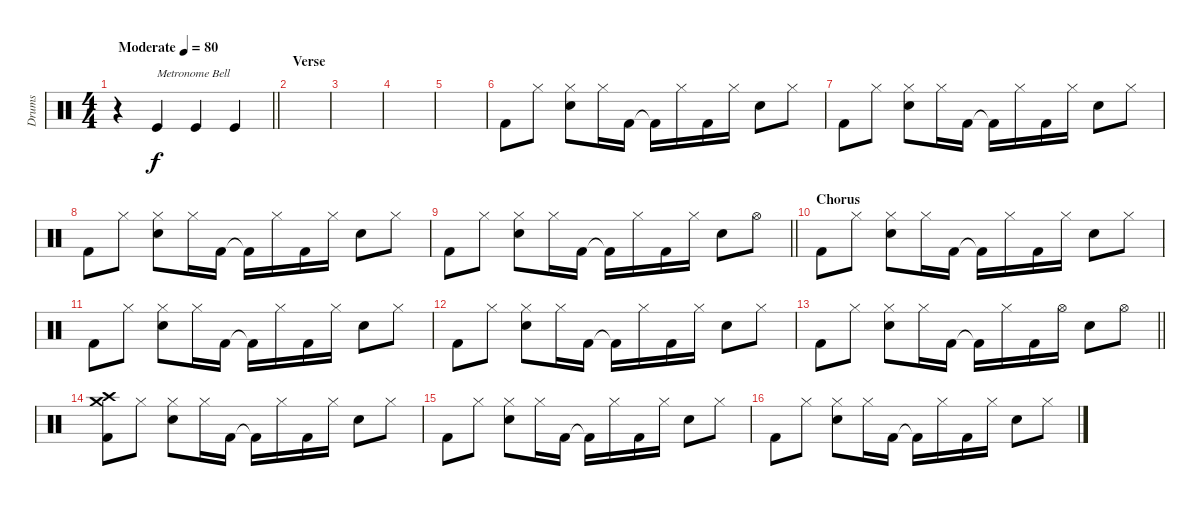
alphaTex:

\track ("Drums" "Drums") {instrument percussion}
\staff {score}
\articulation defaults
\ts (4 4)
\tempo (80 "Moderate")
\clef neutral
\barLineRight lightlight
\ks c
r.4{dy f} "Kick (hit)".4{txt "Metronome Bell"} "Kick (hit)".4 "Kick (hit)".4 |
\section ("" "Verse")
|
|
|
|
"Kick (hit) 2".8 "Hi-Hat (closed)".8 ("Hi-Hat (closed)" "Snare (hit) 2").8 "Hi-Hat (closed)".16 "Kick (hit) 2".16 "Kick (hit) 2"{t}.16 "Hi-Hat (closed)".16 "Kick (hit) 2".16 "Hi-Hat (closed)".16 "Snare (hit) 2".8 "Hi-Hat (closed)".8 |
"Kick (hit) 2".8 "Hi-Hat (closed)".8 ("Hi-Hat (closed)" "Snare (hit) 2").8 "Hi-Hat (closed)".16 "Kick (hit) 2".16 "Kick (hit) 2"{t}.16 "Hi-Hat (closed)".16 "Kick (hit) 2".16 "Hi-Hat (closed)".16 "Snare (hit) 2".8 "Hi-Hat (closed)".8 |
"Kick (hit) 2".8 "Hi-Hat (closed)".8 ("Hi-Hat (closed)" "Snare (hit) 2").8 "Hi-Hat (closed)".16 "Kick (hit) 2".16 "Kick (hit) 2"{t}.16 "Hi-Hat (closed)".16 "Kick (hit) 2".16 "Hi-Hat (closed)".16 "Snare (hit) 2".8 "Hi-Hat (closed)".8 |
\barLineRight lightlight "Kick (hit) 2".8 "Hi-Hat (closed)".8
("Hi-Hat (closed)" "Snare (hit) 2").8 "Hi-Hat (closed)".16 "Kick (hit) 2".16 "Kick (hit) 2"{t}.16 "Hi-Hat (closed)".16 "Kick (hit) 2".16 "Hi-Hat (closed)".16 "Snare (hit) 2".8 "Hi-Hat (open)".8 |
\section ("" "Chorus")
"Kick (hit) 2".8 "Hi-Hat (closed)".8 ("Hi-Hat (closed)" "Snare (hit) 2").8 "Hi-Hat (closed)".16 "Kick (hit) 2".16 "Kick (hit) 2"{t}.16 "Hi-Hat (closed)".16 "Kick (hit) 2".16 "Hi-Hat (closed)".16 "Snare (hit) 2".8 "Hi-Hat (closed)".8 |
"Kick (hit) 2".8 "Hi-Hat (closed)".8 ("Hi-Hat (closed)" "Snare (hit) 2").8 "Hi-Hat (closed)".16 "Kick (hit) 2".16 "Kick (hit) 2"{t}.16 "Hi-Hat (closed)".16 "Kick (hit) 2".16 "Hi-Hat (closed)".16 "Snare (hit) 2".8 "Hi-Hat (closed)".8 |
"Kick (hit) 2".8 "Hi-Hat (closed)".8 ("Hi-Hat (closed)" "Snare (hit) 2").8 "Hi-Hat (closed)".16 "Kick (hit) 2".16 "Kick (hit) 2"{t}.16 "Hi-Hat (closed)".16 "Kick (hit) 2".16 "Hi-Hat (closed)".16 "Snare (hit) 2".8 "Hi-Hat (closed)".8 |
\barLineRight lightlight "Kick (hit) 2".8 "Hi-Hat (closed)".8
("Hi-Hat (closed)" "Snare (hit) 2").8 "Hi-Hat (closed)".16 "Kick (hit) 2".16 "Kick (hit) 2"{t}.16 "Hi-Hat (closed)".16 "Kick (hit) 2".16 "Hi-Hat (open)".16 "Snare (hit) 2".8 "Hi-Hat (open)".8 |
("Crash medium (hit)" "Crash high (hit)" "Kick (hit) 2").8 "Hi-Hat (closed)".8 ("Hi-Hat (closed)" "Snare (hit) 2").8 "Hi-Hat (closed)".16 "Kick (hit) 2".16 "Kick (hit) 2"{t}.16 "Hi-Hat (closed)".16 "Kick (hit) 2".16 "Hi-Hat (closed)".16 "Snare (hit) 2".8 "Hi-Hat (closed)".8 |
"Kick (hit) 2".8 "Hi-Hat (closed)".8 ("Hi-Hat (closed)" "Snare (hit) 2").8 "Hi-Hat (closed)".16 "Kick (hit) 2".16 "Kick (hit) 2"{t}.16 "Hi-Hat (closed)".16 "Kick (hit) 2".16 "Hi-Hat (closed)".16 "Snare (hit) 2".8 "Hi-Hat (closed)".8 |
"Kick (hit) 2".8 "Hi-Hat (closed)".8 ("Hi-Hat (closed)" "Snare (hit) 2").8 "Hi-Hat (closed)".16 "Kick (hit) 2".16 "Kick (hit) 2"{t}.16 "Hi-Hat (closed)".16 "Kick (hit) 2".16 "Hi-Hat (closed)".16 "Snare (hit) 2".8 "Hi-Hat (closed)".8
